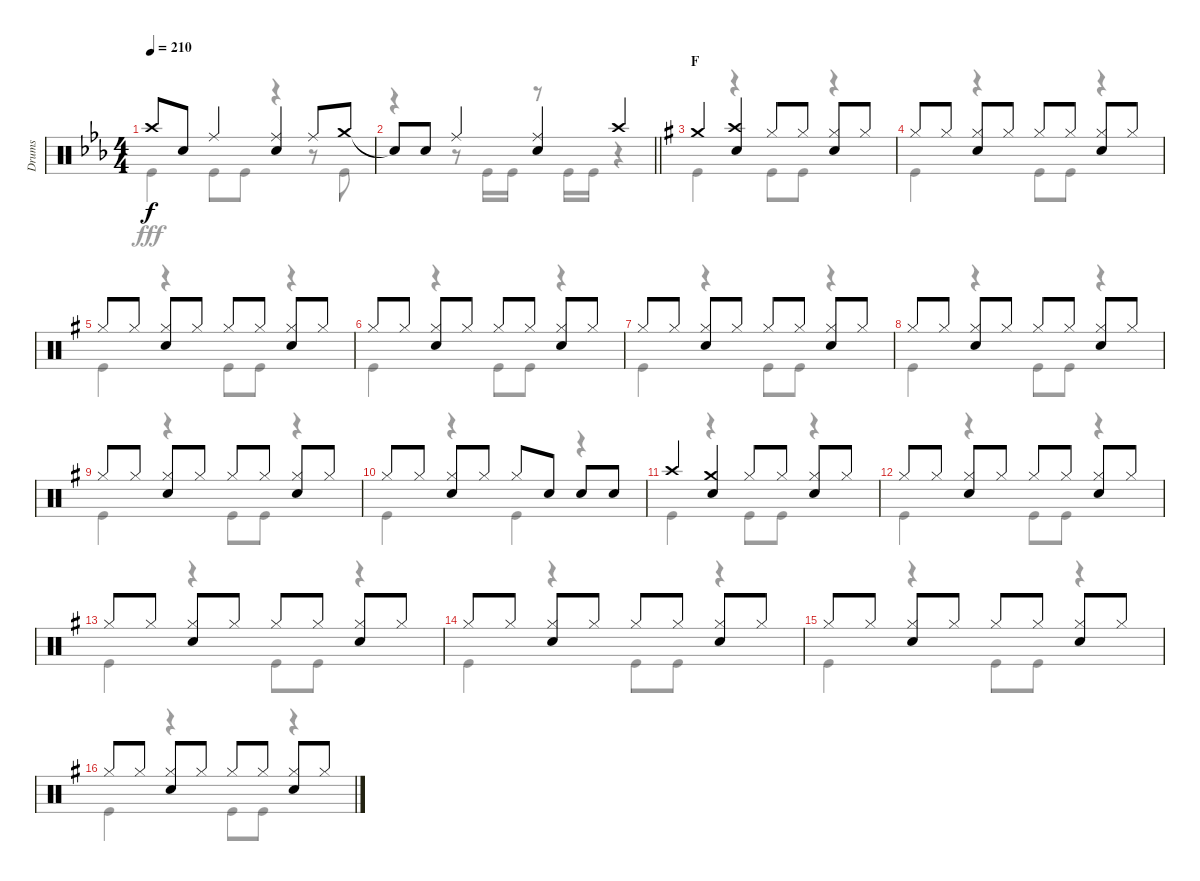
\track ("Drums" "Drums") {instrument percussion}
\staff {score}
\articulation defaults
\voice
\ts (4 4)
\tempo 210
\clef neutral
\ks eb "Crash high (hit)".8{dy f} "Snare (hit) 2".8 "Ride (middle)".4
("Ride (middle)" "Snare (hit) 2").4 "Ride (middle)".8 "Crash medium (hit)".8 |
\barLineRight lightlight "Snare (hit)"{t}.8 "Snare (hit) 2".8 "Ride (middle)".4
("Ride (middle)" "Snare (hit) 2").4 "Crash high (hit)".4 |
\section ("" "F")
\ks g "Crash medium (hit)".4
("Crash high (hit)" "Snare (hit) 2").4 "Hi-Hat (closed)".8 "Hi-Hat (closed)".8 ("Hi-Hat (closed)" "Snare (hit) 2").8 "Hi-Hat (closed)".8 |
"Hi-Hat (closed)".8 "Hi-Hat (closed)".8 ("Hi-Hat (closed)" "Snare (hit) 2").8 "Hi-Hat (closed)".8 "Hi-Hat (closed)".8 "Hi-Hat (closed)".8 ("Hi-Hat (closed)" "Snare (hit) 2").8 "Hi-Hat (closed)".8 |
"Hi-Hat (closed)".8 "Hi-Hat (closed)".8 ("Hi-Hat (closed)" "Snare (hit) 2").8 "Hi-Hat (closed)".8 "Hi-Hat (closed)".8 "Hi-Hat (closed)".8 ("Hi-Hat (closed)" "Snare (hit) 2").8 "Hi-Hat (closed)".8 |
"Hi-Hat (closed)".8 "Hi-Hat (closed)".8 ("Hi-Hat (closed)" "Snare (hit) 2").8 "Hi-Hat (closed)".8 "Hi-Hat (closed)".8 "Hi-Hat (closed)".8 ("Hi-Hat (closed)" "Snare (hit) 2").8 "Hi-Hat (closed)".8 |
"Hi-Hat (closed)".8 "Hi-Hat (closed)".8 ("Hi-Hat (closed)" "Snare (hit) 2").8 "Hi-Hat (closed)".8 "Hi-Hat (closed)".8 "Hi-Hat (closed)".8 ("Hi-Hat (closed)" "Snare (hit) 2").8 "Hi-Hat (closed)".8 |
"Hi-Hat (closed)".8 "Hi-Hat (closed)".8 ("Hi-Hat (closed)" "Snare (hit) 2").8 "Hi-Hat (closed)".8 "Hi-Hat (closed)".8 "Hi-Hat (closed)".8 ("Hi-Hat (closed)" "Snare (hit) 2").8 "Hi-Hat (closed)".8 |
"Hi-Hat (closed)".8 "Hi-Hat (closed)".8 ("Hi-Hat (closed)" "Snare (hit) 2").8 "Hi-Hat (closed)".8 "Hi-Hat (closed)".8 "Hi-Hat (closed)".8 ("Hi-Hat (closed)" "Snare (hit) 2").8 "Hi-Hat (closed)".8 |
"Hi-Hat (closed)".8 "Hi-Hat (closed)".8 ("Hi-Hat (closed)" "Snare (hit) 2").8 "Hi-Hat (closed)".8 "Hi-Hat (closed)".8 "Snare (hit) 2".8 "Snare (hit) 2".8 "Snare (hit) 2".8 |
"Crash high (hit)".4 ("Crash medium (hit)" "Snare (hit) 2").4 "Hi-Hat (closed)".8 "Hi-Hat (closed)".8 ("Hi-Hat (closed)" "Snare (hit) 2").8 "Hi-Hat (closed)".8 |
"Hi-Hat (closed)".8 "Hi-Hat (closed)".8 ("Hi-Hat (closed)" "Snare (hit) 2").8 "Hi-Hat (closed)".8 "Hi-Hat (closed)".8 "Hi-Hat (closed)".8 ("Hi-Hat (closed)" "Snare (hit) 2").8 "Hi-Hat (closed)".8 |
"Hi-Hat (closed)".8 "Hi-Hat (closed)".8 ("Hi-Hat (closed)" "Snare (hit) 2").8 "Hi-Hat (closed)".8 "Hi-Hat (closed)".8 "Hi-Hat (closed)".8 ("Hi-Hat (closed)" "Snare (hit) 2").8 "Hi-Hat (closed)".8 |
"Hi-Hat (closed)".8 "Hi-Hat (closed)".8 ("Hi-Hat (closed)" "Snare (hit) 2").8 "Hi-Hat (closed)".8 "Hi-Hat (closed)".8 "Hi-Hat (closed)".8 ("Hi-Hat (closed)" "Snare (hit) 2").8 "Hi-Hat (closed)".8 |
"Hi-Hat (closed)".8 "Hi-Hat (closed)".8 ("Hi-Hat (closed)" "Snare (hit) 2").8 "Hi-Hat (closed)".8 "Hi-Hat (closed)".8 "Hi-Hat (closed)".8 ("Hi-Hat (closed)" "Snare (hit) 2").8 "Hi-Hat (closed)".8 |
"Hi-Hat (closed)".8 "Hi-Hat (closed)".8 ("Hi-Hat (closed)" "Snare (hit) 2").8 "Hi-Hat (closed)".8 "Hi-Hat (closed)".8 "Hi-Hat (closed)".8 ("Hi-Hat (closed)" "Snare (hit) 2").8 "Hi-Hat (closed)".8
\voice
\clef neutral
\ottava regular
\simile none
\ks eb "Kick (hit)".4{dy fff} "Kick (hit)".8 "Kick (hit)".8
r.4 r.8 "Kick (hit)".8 |
\barLineRight lightlight
r.4 r.8 "Kick (hit)".16 "Kick (hit)".16 r.8 "Kick (hit)".16 "Kick (hit)".16 r.4 |
\ks g "Kick (hit)".4
r.4 "Kick (hit)".8 "Kick (hit)".8 r.4 |
"Kick (hit)".4 r.4 "Kick (hit)".8 "Kick (hit)".8 r.4 |
"Kick (hit)".4 r.4 "Kick (hit)".8 "Kick (hit)".8 r.4 |
"Kick (hit)".4 r.4 "Kick (hit)".8 "Kick (hit)".8 r.4 |
"Kick (hit)".4 r.4 "Kick (hit)".8 "Kick (hit)".8 r.4 |
"Kick (hit)".4 r.4 "Kick (hit)".8 "Kick (hit)".8 r.4 |
"Kick (hit)".4 r.4 "Kick (hit)".8 "Kick (hit)".8 r.4 |
"Kick (hit)".4 r.4 "Kick (hit)".4 r.4 |
"Kick (hit)".4 r.4 "Kick (hit)".8 "Kick (hit)".8 r.4 |
"Kick (hit)".4 r.4 "Kick (hit)".8 "Kick (hit)".8 r.4 |
"Kick (hit)".4 r.4 "Kick (hit)".8 "Kick (hit)".8 r.4 |
"Kick (hit)".4 r.4 "Kick (hit)".8 "Kick (hit)".8 r.4 |
"Kick (hit)".4 r.4 "Kick (hit)".8 "Kick (hit)".8 r.4 |
"Kick (hit)".4 r.4 "Kick (hit)".8 "Kick (hit)".8 r.4
